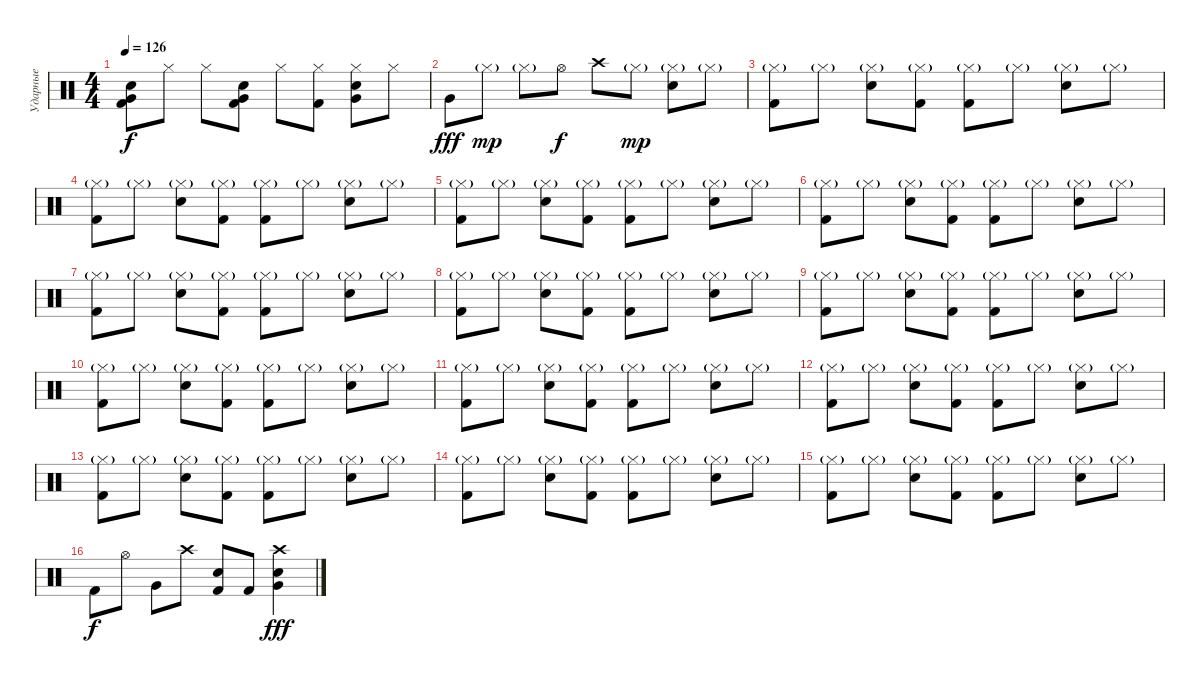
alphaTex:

\track ("Ударные" "Ударные") {instrument percussion}
\staff {score}
\articulation defaults
\ts (4 4)
\tempo 126
\clef neutral
\ks c
("Snare (hit) 2" "Very Low Tom (hit)" "Kick (hit) 2").8{dy f} "Hi-Hat (closed)".8 "Hi-Hat (closed)".8 ("Snare (hit) 2" "Very Low Tom (hit)" "Kick (hit) 2").8 "Hi-Hat (closed)".8 ("Hi-Hat (closed)" "Kick (hit) 2").8 ("Hi-Hat (closed)" "Snare (hit) 2" "Very Low Tom (hit)").8 "Hi-Hat (closed)".8 |
"Very Low Tom (hit)".8{dy fff} "Hi-Hat (closed)"{g}.8{dy mp} "Hi-Hat (closed)"{g}.8 "Hi-Hat (open)".8{dy f} "Crash high (hit)".8 "Hi-Hat (closed)"{g}.8{dy mp} ("Hi-Hat (closed)"{g} "Snare (hit) 2").8 "Hi-Hat (closed)"{g}.8 |
("Hi-Hat (closed)"{g} "Kick (hit) 2").8 "Hi-Hat (closed)"{g}.8 ("Hi-Hat (closed)"{g} "Snare (hit) 2").8 ("Hi-Hat (closed)"{g} "Kick (hit) 2").8 ("Hi-Hat (closed)"{g} "Kick (hit) 2").8 "Hi-Hat (closed)"{g}.8 ("Hi-Hat (closed)"{g} "Snare (hit) 2").8 "Hi-Hat (closed)"{g}.8 |
("Hi-Hat (closed)"{g} "Kick (hit) 2").8 "Hi-Hat (closed)"{g}.8 ("Hi-Hat (closed)"{g} "Snare (hit) 2").8 ("Hi-Hat (closed)"{g} "Kick (hit) 2").8 ("Hi-Hat (closed)"{g} "Kick (hit) 2").8 "Hi-Hat (closed)"{g}.8 ("Hi-Hat (closed)"{g} "Snare (hit) 2").8 "Hi-Hat (closed)"{g}.8 |
("Hi-Hat (closed)"{g} "Kick (hit) 2").8 "Hi-Hat (closed)"{g}.8 ("Hi-Hat (closed)"{g} "Snare (hit) 2").8 ("Hi-Hat (closed)"{g} "Kick (hit) 2").8 ("Hi-Hat (closed)"{g} "Kick (hit) 2").8 "Hi-Hat (closed)"{g}.8 ("Hi-Hat (closed)"{g} "Snare (hit) 2").8 "Hi-Hat (closed)"{g}.8 |
("Hi-Hat (closed)"{g} "Kick (hit) 2").8 "Hi-Hat (closed)"{g}.8 ("Hi-Hat (closed)"{g} "Snare (hit) 2").8 ("Hi-Hat (closed)"{g} "Kick (hit) 2").8 ("Hi-Hat (closed)"{g} "Kick (hit) 2").8 "Hi-Hat (closed)"{g}.8 ("Hi-Hat (closed)"{g} "Snare (hit) 2").8 "Hi-Hat (closed)"{g}.8 |
("Hi-Hat (closed)"{g} "Kick (hit) 2").8 "Hi-Hat (closed)"{g}.8 ("Hi-Hat (closed)"{g} "Snare (hit) 2").8 ("Hi-Hat (closed)"{g} "Kick (hit) 2").8 ("Hi-Hat (closed)"{g} "Kick (hit) 2").8 "Hi-Hat (closed)"{g}.8 ("Hi-Hat (closed)"{g} "Snare (hit) 2").8 "Hi-Hat (closed)"{g}.8 |
("Hi-Hat (closed)"{g} "Kick (hit) 2").8 "Hi-Hat (closed)"{g}.8 ("Hi-Hat (closed)"{g} "Snare (hit) 2").8 ("Hi-Hat (closed)"{g} "Kick (hit) 2").8 ("Hi-Hat (closed)"{g} "Kick (hit) 2").8 "Hi-Hat (closed)"{g}.8 ("Hi-Hat (closed)"{g} "Snare (hit) 2").8 "Hi-Hat (closed)"{g}.8 |
("Hi-Hat (closed)"{g} "Kick (hit) 2").8 "Hi-Hat (closed)"{g}.8 ("Hi-Hat (closed)"{g} "Snare (hit) 2").8 ("Hi-Hat (closed)"{g} "Kick (hit) 2").8 ("Hi-Hat (closed)"{g} "Kick (hit) 2").8 "Hi-Hat (closed)"{g}.8 ("Hi-Hat (closed)"{g} "Snare (hit) 2").8 "Hi-Hat (closed)"{g}.8 |
("Hi-Hat (closed)"{g} "Kick (hit) 2").8 "Hi-Hat (closed)"{g}.8 ("Hi-Hat (closed)"{g} "Snare (hit) 2").8 ("Hi-Hat (closed)"{g} "Kick (hit) 2").8 ("Hi-Hat (closed)"{g} "Kick (hit) 2").8 "Hi-Hat (closed)"{g}.8 ("Hi-Hat (closed)"{g} "Snare (hit) 2").8 "Hi-Hat (closed)"{g}.8 |
("Hi-Hat (closed)"{g} "Kick (hit) 2").8 "Hi-Hat (closed)"{g}.8 ("Hi-Hat (closed)"{g} "Snare (hit) 2").8 ("Hi-Hat (closed)"{g} "Kick (hit) 2").8 ("Hi-Hat (closed)"{g} "Kick (hit) 2").8 "Hi-Hat (closed)"{g}.8 ("Hi-Hat (closed)"{g} "Snare (hit) 2").8 "Hi-Hat (closed)"{g}.8 |
("Hi-Hat (closed)"{g} "Kick (hit) 2").8 "Hi-Hat (closed)"{g}.8 ("Hi-Hat (closed)"{g} "Snare (hit) 2").8 ("Hi-Hat (closed)"{g} "Kick (hit) 2").8 ("Hi-Hat (closed)"{g} "Kick (hit) 2").8 "Hi-Hat (closed)"{g}.8 ("Hi-Hat (closed)"{g} "Snare (hit) 2").8 "Hi-Hat (closed)"{g}.8 |
("Hi-Hat (closed)"{g} "Kick (hit) 2").8 "Hi-Hat (closed)"{g}.8 ("Hi-Hat (closed)"{g} "Snare (hit) 2").8 ("Hi-Hat (closed)"{g} "Kick (hit) 2").8 ("Hi-Hat (closed)"{g} "Kick (hit) 2").8 "Hi-Hat (closed)"{g}.8 ("Hi-Hat (closed)"{g} "Snare (hit) 2").8 "Hi-Hat (closed)"{g}.8 |
("Hi-Hat (closed)"{g} "Kick (hit) 2").8 "Hi-Hat (closed)"{g}.8 ("Hi-Hat (closed)"{g} "Snare (hit) 2").8 ("Hi-Hat (closed)"{g} "Kick (hit) 2").8 ("Hi-Hat (closed)"{g} "Kick (hit) 2").8 "Hi-Hat (closed)"{g}.8 ("Hi-Hat (closed)"{g} "Snare (hit) 2").8 "Hi-Hat (closed)"{g}.8 |
("Hi-Hat (closed)"{g} "Kick (hit) 2").8 "Hi-Hat (closed)"{g}.8 ("Hi-Hat (closed)"{g} "Snare (hit) 2").8 ("Hi-Hat (closed)"{g} "Kick (hit) 2").8 ("Hi-Hat (closed)"{g} "Kick (hit) 2").8 "Hi-Hat (closed)"{g}.8 ("Hi-Hat (closed)"{g} "Snare (hit) 2").8 "Hi-Hat (closed)"{g}.8 |
"Kick (hit) 2".8{dy f} "Hi-Hat (open)".8 "Very Low Tom (hit)".8 "Crash high (hit)".8 ("Snare (hit) 2" "Kick (hit) 2").8 "Kick (hit) 2".8 ("Crash high (hit)" "Snare (hit) 2" "Very Low Tom (hit)").4{dy fff}
